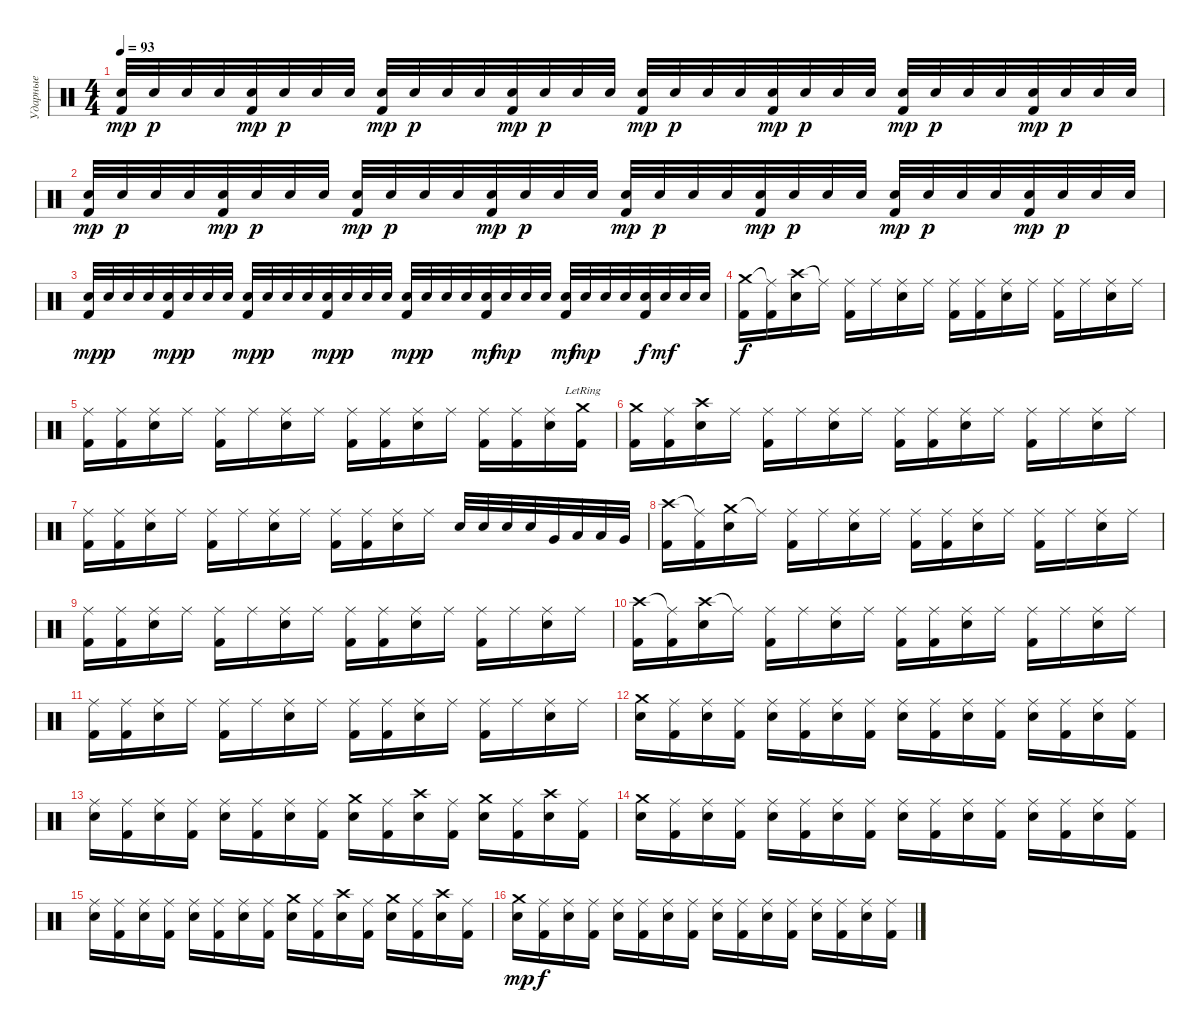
\track ("Ударные" "Ударные") {instrument percussion}
\staff {score}
\articulation defaults
\ts (4 4)
\tempo 93
\clef neutral
\ks c
("Electric Snare (hit)" "Kick (hit) 2").32{dy mp} "Electric Snare (hit)".32{dy p} "Electric Snare (hit)".32 "Electric Snare (hit)".32 ("Electric Snare (hit)" "Kick (hit) 2").32{dy mp} "Electric Snare (hit)".32{dy p} "Electric Snare (hit)".32 "Electric Snare (hit)".32 ("Electric Snare (hit)" "Kick (hit) 2").32{dy mp} "Electric Snare (hit)".32{dy p} "Electric Snare (hit)".32 "Electric Snare (hit)".32 ("Electric Snare (hit)" "Kick (hit) 2").32{dy mp} "Electric Snare (hit)".32{dy p} "Electric Snare (hit)".32 "Electric Snare (hit)".32 ("Electric Snare (hit)" "Kick (hit) 2").32{dy mp} "Electric Snare (hit)".32{dy p} "Electric Snare (hit)".32 "Electric Snare (hit)".32 ("Electric Snare (hit)" "Kick (hit) 2").32{dy mp} "Electric Snare (hit)".32{dy p} "Electric Snare (hit)".32 "Electric Snare (hit)".32 ("Electric Snare (hit)" "Kick (hit) 2").32{dy mp} "Electric Snare (hit)".32{dy p} "Electric Snare (hit)".32 "Electric Snare (hit)".32 ("Electric Snare (hit)" "Kick (hit) 2").32{dy mp} "Electric Snare (hit)".32{dy p} "Electric Snare (hit)".32 "Electric Snare (hit)".32 |
("Electric Snare (hit)" "Kick (hit) 2").32{dy mp} "Electric Snare (hit)".32{dy p} "Electric Snare (hit)".32 "Electric Snare (hit)".32 ("Electric Snare (hit)" "Kick (hit) 2").32{dy mp} "Electric Snare (hit)".32{dy p} "Electric Snare (hit)".32 "Electric Snare (hit)".32 ("Electric Snare (hit)" "Kick (hit) 2").32{dy mp} "Electric Snare (hit)".32{dy p} "Electric Snare (hit)".32 "Electric Snare (hit)".32 ("Electric Snare (hit)" "Kick (hit) 2").32{dy mp} "Electric Snare (hit)".32{dy p} "Electric Snare (hit)".32 "Electric Snare (hit)".32 ("Electric Snare (hit)" "Kick (hit) 2").32{dy mp} "Electric Snare (hit)".32{dy p} "Electric Snare (hit)".32 "Electric Snare (hit)".32 ("Electric Snare (hit)" "Kick (hit) 2").32{dy mp} "Electric Snare (hit)".32{dy p} "Electric Snare (hit)".32 "Electric Snare (hit)".32 ("Electric Snare (hit)" "Kick (hit) 2").32{dy mp} "Electric Snare (hit)".32{dy p} "Electric Snare (hit)".32 "Electric Snare (hit)".32 ("Electric Snare (hit)" "Kick (hit) 2").32{dy mp} "Electric Snare (hit)".32{dy p} "Electric Snare (hit)".32 "Electric Snare (hit)".32 |
("Electric Snare (hit)" "Kick (hit) 2").32{dy mp} "Electric Snare (hit)".32{dy p} "Electric Snare (hit)".32 "Electric Snare (hit)".32 ("Electric Snare (hit)" "Kick (hit) 2").32{dy mp} "Electric Snare (hit)".32{dy p} "Electric Snare (hit)".32 "Electric Snare (hit)".32 ("Electric Snare (hit)" "Kick (hit) 2").32{dy mp} "Electric Snare (hit)".32{dy p} "Electric Snare (hit)".32 "Electric Snare (hit)".32 ("Electric Snare (hit)" "Kick (hit) 2").32{dy mp} "Electric Snare (hit)".32{dy p} "Electric Snare (hit)".32 "Electric Snare (hit)".32 ("Electric Snare (hit)" "Kick (hit) 2").32{dy mp} "Electric Snare (hit)".32{dy p} "Electric Snare (hit)".32 "Electric Snare (hit)".32 ("Electric Snare (hit)" "Kick (hit) 2").32{dy mf} "Electric Snare (hit)".32{dy mp} "Electric Snare (hit)".32 "Electric Snare (hit)".32 ("Electric Snare (hit)" "Kick (hit) 2").32{dy mf} "Electric Snare (hit)".32{dy mp} "Electric Snare (hit)".32 "Electric Snare (hit)".32 ("Electric Snare (hit)" "Kick (hit) 2").32{dy f} "Electric Snare (hit)".32{dy mf} "Electric Snare (hit)".32 "Electric Snare (hit)".32 |
("Crash medium (hit)" "Kick (hit) 2").16{dy f} ("Ride (middle)"{t} "Kick (hit) 2").16 ("Crash high (hit)" "Electric Snare (hit)").16 "Ride (middle)"{t}.16 ("Ride (middle)" "Kick (hit) 2").16 "Ride (middle)".16 ("Ride (middle)" "Electric Snare (hit)").16 "Ride (middle)".16 ("Ride (middle)" "Kick (hit) 2").16 ("Ride (middle)" "Kick (hit) 2").16 ("Ride (middle)" "Electric Snare (hit)").16 "Ride (middle)".16 ("Ride (middle)" "Kick (hit) 2").16 "Ride (middle)".16 ("Ride (middle)" "Electric Snare (hit)").16 "Ride (middle)".16 |
("Ride (middle)" "Kick (hit) 2").16 ("Ride (middle)" "Kick (hit) 2").16 ("Ride (middle)" "Electric Snare (hit)").16 "Ride (middle)".16 ("Ride (middle)" "Kick (hit) 2").16 "Ride (middle)".16 ("Ride (middle)" "Electric Snare (hit)").16 "Ride (middle)".16 ("Ride (middle)" "Kick (hit) 2").16 ("Ride (middle)" "Kick (hit) 2").16 ("Ride (middle)" "Electric Snare (hit)").16 "Ride (middle)".16 ("Ride (middle)" "Kick (hit) 2").16 ("Ride (middle)" "Kick (hit) 2").16 ("Ride (middle)" "Electric Snare (hit)").16 ("Crash medium (hit)"{lr} "Kick (hit) 2").16 |
("Crash medium (hit)" "Kick (hit) 2").16 ("Ride (middle)" "Kick (hit) 2").16 ("Crash high (hit)" "Electric Snare (hit)").16 "Ride (middle)".16 ("Ride (middle)" "Kick (hit) 2").16 "Ride (middle)".16 ("Ride (middle)" "Electric Snare (hit)").16 "Ride (middle)".16 ("Ride (middle)" "Kick (hit) 2").16 ("Ride (middle)" "Kick (hit) 2").16 ("Ride (middle)" "Electric Snare (hit)").16 "Ride (middle)".16 ("Ride (middle)" "Kick (hit) 2").16 "Ride (middle)".16 ("Ride (middle)" "Electric Snare (hit)").16 "Ride (middle)".16 |
("Ride (middle)" "Kick (hit) 2").16 ("Ride (middle)" "Kick (hit) 2").16 ("Ride (middle)" "Electric Snare (hit)").16 "Ride (middle)".16 ("Ride (middle)" "Kick (hit) 2").16 "Ride (middle)".16 ("Ride (middle)" "Electric Snare (hit)").16 "Ride (middle)".16 ("Ride (middle)" "Kick (hit) 2").16 ("Ride (middle)" "Kick (hit) 2").16 ("Ride (middle)" "Electric Snare (hit)").16 "Ride (middle)".16 "Electric Snare (hit)".32 "Electric Snare (hit)".32 "Electric Snare (hit)".32 "Electric Snare (hit)".32 "Very Low Tom (hit)".32 "Low Floor Tom (hit)".32 "Low Floor Tom (hit)".32 "Very Low Tom (hit)".32 |
("Crash high (hit)" "Kick (hit) 2").16 ("Ride (middle)"{t} "Kick (hit) 2").16 ("Crash medium (hit)" "Electric Snare (hit)").16 "Ride (middle)"{t}.16 ("Ride (middle)" "Kick (hit) 2").16 "Ride (middle)".16 ("Ride (middle)" "Electric Snare (hit)").16 "Ride (middle)".16 ("Ride (middle)" "Kick (hit) 2").16 ("Ride (middle)" "Kick (hit) 2").16 ("Ride (middle)" "Electric Snare (hit)").16 "Ride (middle)".16 ("Ride (middle)" "Kick (hit) 2").16 "Ride (middle)".16 ("Ride (middle)" "Electric Snare (hit)").16 "Ride (middle)".16 |
("Ride (middle)" "Kick (hit) 2").16 ("Ride (middle)" "Kick (hit) 2").16 ("Ride (middle)" "Electric Snare (hit)").16 "Ride (middle)".16 ("Ride (middle)" "Kick (hit) 2").16 "Ride (middle)".16 ("Ride (middle)" "Electric Snare (hit)").16 "Ride (middle)".16 ("Ride (middle)" "Kick (hit) 2").16 ("Ride (middle)" "Kick (hit) 2").16 ("Ride (middle)" "Electric Snare (hit)").16 "Ride (middle)".16 ("Ride (middle)" "Kick (hit) 2").16 "Ride (middle)".16 ("Ride (middle)" "Electric Snare (hit)").16 "Ride (middle)".16 |
("Crash high (hit)" "Kick (hit) 2").16 ("Ride (middle)"{t} "Kick (hit) 2").16 ("Crash high (hit)" "Electric Snare (hit)").16 "Ride (middle)"{t}.16 ("Ride (middle)" "Kick (hit) 2").16 "Ride (middle)".16 ("Ride (middle)" "Electric Snare (hit)").16 "Ride (middle)".16 ("Ride (middle)" "Kick (hit) 2").16 ("Ride (middle)" "Kick (hit) 2").16 ("Ride (middle)" "Electric Snare (hit)").16 "Ride (middle)".16 ("Ride (middle)" "Kick (hit) 2").16 "Ride (middle)".16 ("Ride (middle)" "Electric Snare (hit)").16 "Ride (middle)".16 |
("Ride (middle)" "Kick (hit) 2").16 ("Ride (middle)" "Kick (hit) 2").16 ("Ride (middle)" "Electric Snare (hit)").16 "Ride (middle)".16 ("Ride (middle)" "Kick (hit) 2").16 "Ride (middle)".16 ("Ride (middle)" "Electric Snare (hit)").16 "Ride (middle)".16 ("Ride (middle)" "Kick (hit) 2").16 ("Ride (middle)" "Kick (hit) 2").16 ("Ride (middle)" "Electric Snare (hit)").16 "Ride (middle)".16 ("Ride (middle)" "Kick (hit) 2").16 "Ride (middle)".16 ("Ride (middle)" "Electric Snare (hit)").16 "Ride (middle)".16 |
("Crash medium (hit)" "Electric Snare (hit)").16 ("Ride (middle)" "Kick (hit) 2").16 ("Ride (middle)" "Electric Snare (hit)").16 ("Ride (middle)" "Kick (hit) 2").16 ("Ride (middle)" "Electric Snare (hit)").16 ("Ride (middle)" "Kick (hit) 2").16 ("Ride (middle)" "Electric Snare (hit)").16 ("Ride (middle)" "Kick (hit) 2").16 ("Ride (middle)" "Electric Snare (hit)").16 ("Ride (middle)" "Kick (hit) 2").16 ("Ride (middle)" "Electric Snare (hit)").16 ("Ride (middle)" "Kick (hit) 2").16 ("Ride (middle)" "Electric Snare (hit)").16 ("Ride (middle)" "Kick (hit) 2").16 ("Ride (middle)" "Electric Snare (hit)").16 ("Ride (middle)" "Kick (hit) 2").16 |
("Ride (middle)" "Electric Snare (hit)").16 ("Ride (middle)" "Kick (hit) 2").16 ("Ride (middle)" "Electric Snare (hit)").16 ("Ride (middle)" "Kick (hit) 2").16 ("Ride (middle)" "Electric Snare (hit)").16 ("Ride (middle)" "Kick (hit) 2").16 ("Ride (middle)" "Electric Snare (hit)").16 ("Ride (middle)" "Kick (hit) 2").16 ("Crash medium (hit)" "Electric Snare (hit)").16 ("Ride (middle)" "Kick (hit) 2").16 ("Crash high (hit)" "Electric Snare (hit)").16 ("Ride (middle)" "Kick (hit) 2").16 ("Crash medium (hit)" "Electric Snare (hit)").16 ("Ride (middle)" "Kick (hit) 2").16 ("Crash high (hit)" "Electric Snare (hit)").16 ("Ride (middle)" "Kick (hit) 2").16 |
("Crash medium (hit)" "Electric Snare (hit)").16 ("Ride (middle)" "Kick (hit) 2").16 ("Ride (middle)" "Electric Snare (hit)").16 ("Ride (middle)" "Kick (hit) 2").16 ("Ride (middle)" "Electric Snare (hit)").16 ("Ride (middle)" "Kick (hit) 2").16 ("Ride (middle)" "Electric Snare (hit)").16 ("Ride (middle)" "Kick (hit) 2").16 ("Ride (middle)" "Electric Snare (hit)").16 ("Ride (middle)" "Kick (hit) 2").16 ("Ride (middle)" "Electric Snare (hit)").16 ("Ride (middle)" "Kick (hit) 2").16 ("Ride (middle)" "Electric Snare (hit)").16 ("Ride (middle)" "Kick (hit) 2").16 ("Ride (middle)" "Electric Snare (hit)").16 ("Ride (middle)" "Kick (hit) 2").16 |
("Ride (middle)" "Electric Snare (hit)").16 ("Ride (middle)" "Kick (hit) 2").16 ("Ride (middle)" "Electric Snare (hit)").16 ("Ride (middle)" "Kick (hit) 2").16 ("Ride (middle)" "Electric Snare (hit)").16 ("Ride (middle)" "Kick (hit) 2").16 ("Ride (middle)" "Electric Snare (hit)").16 ("Ride (middle)" "Kick (hit) 2").16 ("Crash medium (hit)" "Electric Snare (hit)").16 ("Ride (middle)" "Kick (hit) 2").16 ("Crash high (hit)" "Electric Snare (hit)").16 ("Ride (middle)" "Kick (hit) 2").16 ("Crash medium (hit)" "Electric Snare (hit)").16 ("Ride (middle)" "Kick (hit) 2").16 ("Crash high (hit)" "Electric Snare (hit)").16 ("Ride (middle)" "Kick (hit) 2").16 |
("Crash medium (hit)" "Electric Snare (hit)").16{dy mp} ("Ride (middle)" "Kick (hit) 2").16{dy f} ("Ride (middle)" "Electric Snare (hit)").16 ("Ride (middle)" "Kick (hit) 2").16 ("Ride (middle)" "Electric Snare (hit)").16 ("Ride (middle)" "Kick (hit) 2").16 ("Ride (middle)" "Electric Snare (hit)").16 ("Ride (middle)" "Kick (hit) 2").16 ("Ride (middle)" "Electric Snare (hit)").16 ("Ride (middle)" "Kick (hit) 2").16 ("Ride (middle)" "Electric Snare (hit)").16 ("Ride (middle)" "Kick (hit) 2").16 ("Ride (middle)" "Electric Snare (hit)").16 ("Ride (middle)" "Kick (hit) 2").16 ("Ride (middle)" "Electric Snare (hit)").16 ("Ride (middle)" "Kick (hit) 2").16
